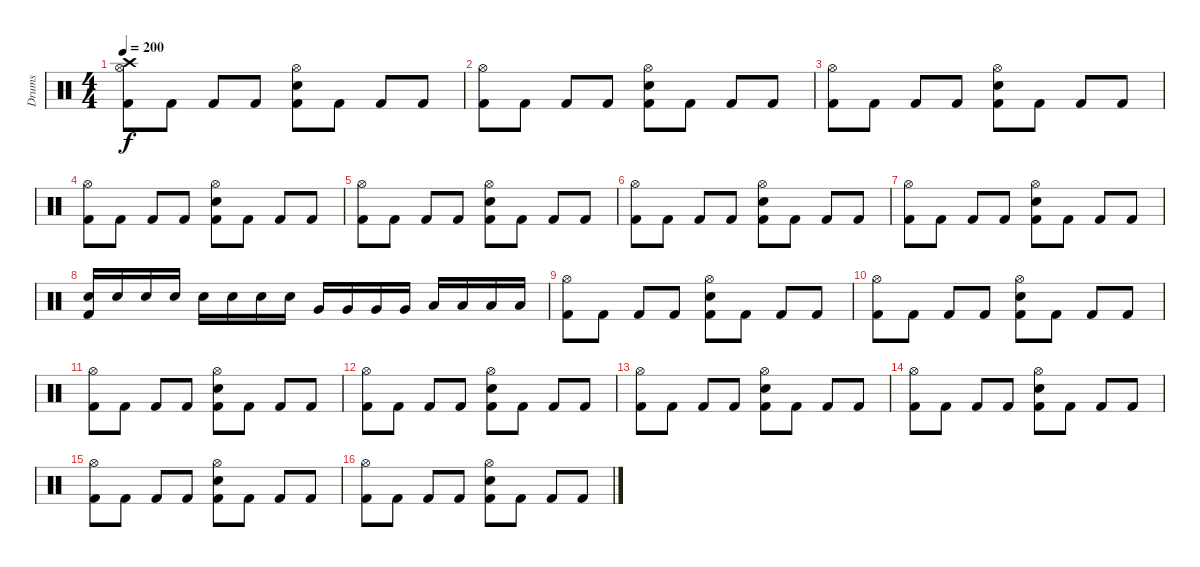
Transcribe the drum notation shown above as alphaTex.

\track ("Drums" "Drums") {instrument percussion}
\staff {score}
\articulation defaults
\ts (4 4)
\tempo 200
\clef neutral
\ks c
("Hi-Hat (open)" "Crash high (hit)" "Kick (hit) 2").8{dy f} "Kick (hit) 2".8 "Kick (hit) 2".8 "Kick (hit) 2".8 ("Hi-Hat (open)" "Snare (hit) 2" "Kick (hit) 2").8 "Kick (hit) 2".8 "Kick (hit) 2".8 "Kick (hit) 2".8 |
("Hi-Hat (open)" "Kick (hit) 2").8 "Kick (hit) 2".8 "Kick (hit) 2".8 "Kick (hit) 2".8 ("Hi-Hat (open)" "Snare (hit) 2" "Kick (hit) 2").8 "Kick (hit) 2".8 "Kick (hit) 2".8 "Kick (hit) 2".8 |
("Hi-Hat (open)" "Kick (hit) 2").8 "Kick (hit) 2".8 "Kick (hit) 2".8 "Kick (hit) 2".8 ("Hi-Hat (open)" "Snare (hit) 2" "Kick (hit) 2").8 "Kick (hit) 2".8 "Kick (hit) 2".8 "Kick (hit) 2".8 |
("Hi-Hat (open)" "Kick (hit) 2").8 "Kick (hit) 2".8 "Kick (hit) 2".8 "Kick (hit) 2".8 ("Hi-Hat (open)" "Snare (hit) 2" "Kick (hit) 2").8 "Kick (hit) 2".8 "Kick (hit) 2".8 "Kick (hit) 2".8 |
("Hi-Hat (open)" "Kick (hit) 2").8 "Kick (hit) 2".8 "Kick (hit) 2".8 "Kick (hit) 2".8 ("Hi-Hat (open)" "Snare (hit) 2" "Kick (hit) 2").8 "Kick (hit) 2".8 "Kick (hit) 2".8 "Kick (hit) 2".8 |
("Hi-Hat (open)" "Kick (hit) 2").8 "Kick (hit) 2".8 "Kick (hit) 2".8 "Kick (hit) 2".8 ("Hi-Hat (open)" "Snare (hit) 2" "Kick (hit) 2").8 "Kick (hit) 2".8 "Kick (hit) 2".8 "Kick (hit) 2".8 |
("Hi-Hat (open)" "Kick (hit) 2").8 "Kick (hit) 2".8 "Kick (hit) 2".8 "Kick (hit) 2".8 ("Hi-Hat (open)" "Snare (hit) 2" "Kick (hit) 2").8 "Kick (hit) 2".8 "Kick (hit) 2".8 "Kick (hit) 2".8 |
("Snare (hit) 2" "Kick (hit) 2").16 "Snare (hit) 2".16 "Snare (hit) 2".16 "Snare (hit) 2".16 "Snare (hit) 2".16 "Snare (hit) 2".16 "Snare (hit) 2".16 "Snare (hit) 2".16 "Very Low Tom (hit)".16 "Very Low Tom (hit)".16 "Very Low Tom (hit)".16 "Very Low Tom (hit)".16 "Low Floor Tom (hit)".16 "Low Floor Tom (hit)".16 "Low Floor Tom (hit)".16 "Low Floor Tom (hit)".16 |
("Hi-Hat (open)" "Kick (hit) 2").8 "Kick (hit) 2".8 "Kick (hit) 2".8 "Kick (hit) 2".8 ("Hi-Hat (open)" "Snare (hit) 2" "Kick (hit) 2").8 "Kick (hit) 2".8 "Kick (hit) 2".8 "Kick (hit) 2".8 |
("Hi-Hat (open)" "Kick (hit) 2").8 "Kick (hit) 2".8 "Kick (hit) 2".8 "Kick (hit) 2".8 ("Hi-Hat (open)" "Snare (hit) 2" "Kick (hit) 2").8 "Kick (hit) 2".8 "Kick (hit) 2".8 "Kick (hit) 2".8 |
("Hi-Hat (open)" "Kick (hit) 2").8 "Kick (hit) 2".8 "Kick (hit) 2".8 "Kick (hit) 2".8 ("Hi-Hat (open)" "Snare (hit) 2" "Kick (hit) 2").8 "Kick (hit) 2".8 "Kick (hit) 2".8 "Kick (hit) 2".8 |
("Hi-Hat (open)" "Kick (hit) 2").8 "Kick (hit) 2".8 "Kick (hit) 2".8 "Kick (hit) 2".8 ("Hi-Hat (open)" "Snare (hit) 2" "Kick (hit) 2").8 "Kick (hit) 2".8 "Kick (hit) 2".8 "Kick (hit) 2".8 |
("Hi-Hat (open)" "Kick (hit) 2").8 "Kick (hit) 2".8 "Kick (hit) 2".8 "Kick (hit) 2".8 ("Hi-Hat (open)" "Snare (hit) 2" "Kick (hit) 2").8 "Kick (hit) 2".8 "Kick (hit) 2".8 "Kick (hit) 2".8 |
("Hi-Hat (open)" "Kick (hit) 2").8 "Kick (hit) 2".8 "Kick (hit) 2".8 "Kick (hit) 2".8 ("Hi-Hat (open)" "Snare (hit) 2" "Kick (hit) 2").8 "Kick (hit) 2".8 "Kick (hit) 2".8 "Kick (hit) 2".8 |
("Hi-Hat (open)" "Kick (hit) 2").8 "Kick (hit) 2".8 "Kick (hit) 2".8 "Kick (hit) 2".8 ("Hi-Hat (open)" "Snare (hit) 2" "Kick (hit) 2").8 "Kick (hit) 2".8 "Kick (hit) 2".8 "Kick (hit) 2".8 |
("Hi-Hat (open)" "Kick (hit) 2").8 "Kick (hit) 2".8 "Kick (hit) 2".8 "Kick (hit) 2".8 ("Hi-Hat (open)" "Snare (hit) 2" "Kick (hit) 2").8 "Kick (hit) 2".8 "Kick (hit) 2".8 "Kick (hit) 2".8
